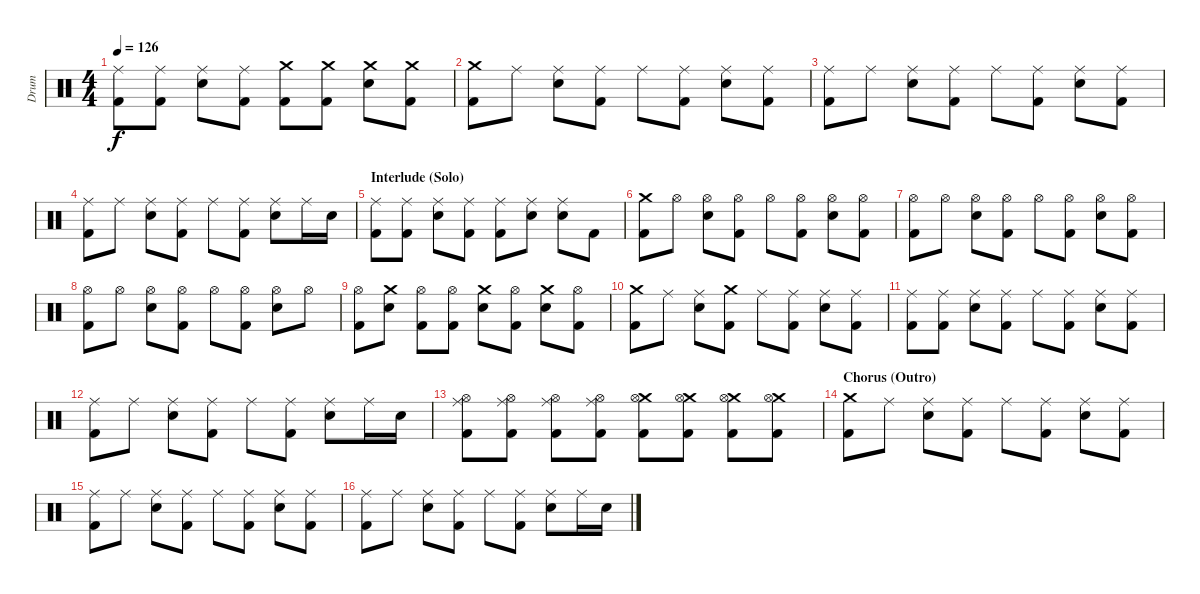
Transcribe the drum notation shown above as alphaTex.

\track ("Drum" "Drum") {instrument percussion}
\staff {score}
\articulation defaults
\ts (4 4)
\tempo 126
\clef neutral
\ks c
("Ride (middle)" "Kick (hit) 2").8{dy f} ("Ride (middle)" "Kick (hit) 2").8 ("Ride (middle)" "Snare (hit) 2").8 ("Ride (middle)" "Kick (hit) 2").8 ("Crash medium (hit)" "Kick (hit) 2").8 ("Crash medium (hit)" "Kick (hit) 2").8 ("Crash medium (hit)" "Snare (hit) 2").8 ("Crash medium (hit)" "Kick (hit) 2").8 |
("Crash medium (hit)" "Kick (hit) 2").8 "Ride (middle)".8 ("Ride (middle)" "Snare (hit) 2").8 ("Ride (middle)" "Kick (hit) 2").8 "Ride (middle)".8 ("Ride (middle)" "Kick (hit) 2").8 ("Ride (middle)" "Snare (hit) 2").8 ("Ride (middle)" "Kick (hit) 2").8 |
("Ride (middle)" "Kick (hit) 2").8 "Ride (middle)".8 ("Ride (middle)" "Snare (hit) 2").8 ("Ride (middle)" "Kick (hit) 2").8 "Ride (middle)".8 ("Ride (middle)" "Kick (hit) 2").8 ("Ride (middle)" "Snare (hit) 2").8 ("Ride (middle)" "Kick (hit) 2").8 |
("Ride (middle)" "Kick (hit) 2").8 "Ride (middle)".8 ("Ride (middle)" "Snare (hit) 2").8 ("Ride (middle)" "Kick (hit) 2").8 "Ride (middle)".8 ("Ride (middle)" "Kick (hit) 2").8 ("Ride (middle)" "Snare (hit) 2").8 "Ride (middle)".16 "Snare (hit) 2".16 |
\section ("" "Interlude (Solo)")
("Ride (middle)" "Kick (hit) 2").8 ("Ride (middle)" "Kick (hit) 2").8 ("Ride (middle)" "Snare (hit) 2").8 ("Ride (middle)" "Kick (hit) 2").8 ("Ride (middle)" "Kick (hit) 2").8 ("Ride (middle)" "Snare (hit) 2").8 ("Ride (middle)" "Snare (hit) 2").8 "Kick (hit) 2".8 |
("Crash medium (hit)" "Kick (hit) 2").8 "Hi-Hat (open)".8 ("Hi-Hat (open)" "Snare (hit) 2").8 ("Hi-Hat (open)" "Kick (hit) 2").8 "Hi-Hat (open)".8 ("Hi-Hat (open)" "Kick (hit) 2").8 ("Hi-Hat (open)" "Snare (hit) 2").8 ("Hi-Hat (open)" "Kick (hit) 2").8 |
("Hi-Hat (open)" "Kick (hit) 2").8 "Hi-Hat (open)".8 ("Hi-Hat (open)" "Snare (hit) 2").8 ("Hi-Hat (open)" "Kick (hit) 2").8 "Hi-Hat (open)".8 ("Hi-Hat (open)" "Kick (hit) 2").8 ("Hi-Hat (open)" "Snare (hit) 2").8 ("Hi-Hat (open)" "Kick (hit) 2").8 |
("Hi-Hat (open)" "Kick (hit) 2").8 "Hi-Hat (open)".8 ("Hi-Hat (open)" "Snare (hit) 2").8 ("Hi-Hat (open)" "Kick (hit) 2").8 "Hi-Hat (open)".8 ("Hi-Hat (open)" "Kick (hit) 2").8 ("Hi-Hat (open)" "Snare (hit) 2").8 "Hi-Hat (open)".8 |
("Hi-Hat (open)" "Kick (hit) 2").8 ("Crash medium (hit)" "Snare (hit) 2").8 ("Hi-Hat (open)" "Kick (hit) 2").8 ("Hi-Hat (open)" "Kick (hit) 2").8 ("Crash medium (hit)" "Snare (hit) 2").8 ("Hi-Hat (open)" "Kick (hit) 2").8 ("Crash medium (hit)" "Snare (hit) 2").8 ("Hi-Hat (open)" "Kick (hit) 2").8 |
("Crash medium (hit)" "Kick (hit) 2").8 "Ride (middle)".8 ("Ride (middle)" "Snare (hit) 2").8 ("Crash medium (hit)" "Kick (hit) 2").8 "Ride (middle)".8 ("Ride (middle)" "Kick (hit) 2").8 ("Ride (middle)" "Snare (hit) 2").8 ("Ride (middle)" "Kick (hit) 2").8 |
("Ride (middle)" "Kick (hit) 2").8 ("Ride (middle)" "Kick (hit) 2").8 ("Ride (middle)" "Snare (hit) 2").8 ("Ride (middle)" "Kick (hit) 2").8 "Ride (middle)".8 ("Ride (middle)" "Kick (hit) 2").8 ("Ride (middle)" "Snare (hit) 2").8 ("Ride (middle)" "Kick (hit) 2").8 |
("Ride (middle)" "Kick (hit) 2").8 "Ride (middle)".8 ("Ride (middle)" "Snare (hit) 2").8 ("Ride (middle)" "Kick (hit) 2").8 "Ride (middle)".8 ("Ride (middle)" "Kick (hit) 2").8 ("Ride (middle)" "Snare (hit) 2").8 "Ride (middle)".16 "Snare (hit) 2".16 |
("Ride (middle)" "Hi-Hat (open)" "Kick (hit) 2").8 ("Ride (middle)" "Hi-Hat (open)" "Kick (hit) 2").8 ("Ride (middle)" "Hi-Hat (open)" "Kick (hit) 2").8 ("Ride (middle)" "Hi-Hat (open)" "Kick (hit) 2").8 ("Crash medium (hit)" "Hi-Hat (open)" "Kick (hit) 2").8 ("Crash medium (hit)" "Hi-Hat (open)" "Kick (hit) 2").8 ("Crash medium (hit)" "Hi-Hat (open)" "Kick (hit) 2").8 ("Crash medium (hit)" "Hi-Hat (open)" "Kick (hit) 2").8 |
\section ("" "Chorus (Outro)")
("Crash medium (hit)" "Kick (hit) 2").8 "Ride (middle)".8 ("Ride (middle)" "Snare (hit) 2").8 ("Ride (middle)" "Kick (hit) 2").8 "Ride (middle)".8 ("Ride (middle)" "Kick (hit) 2").8 ("Ride (middle)" "Snare (hit) 2").8 ("Ride (middle)" "Kick (hit) 2").8 |
("Ride (middle)" "Kick (hit) 2").8 "Ride (middle)".8 ("Ride (middle)" "Snare (hit) 2").8 ("Ride (middle)" "Kick (hit) 2").8 "Ride (middle)".8 ("Ride (middle)" "Kick (hit) 2").8 ("Ride (middle)" "Snare (hit) 2").8 ("Ride (middle)" "Kick (hit) 2").8 |
("Ride (middle)" "Kick (hit) 2").8 "Ride (middle)".8 ("Ride (middle)" "Snare (hit) 2").8 ("Ride (middle)" "Kick (hit) 2").8 "Ride (middle)".8 ("Ride (middle)" "Kick (hit) 2").8 ("Ride (middle)" "Snare (hit) 2").8 "Ride (middle)".16 "Snare (hit) 2".16
